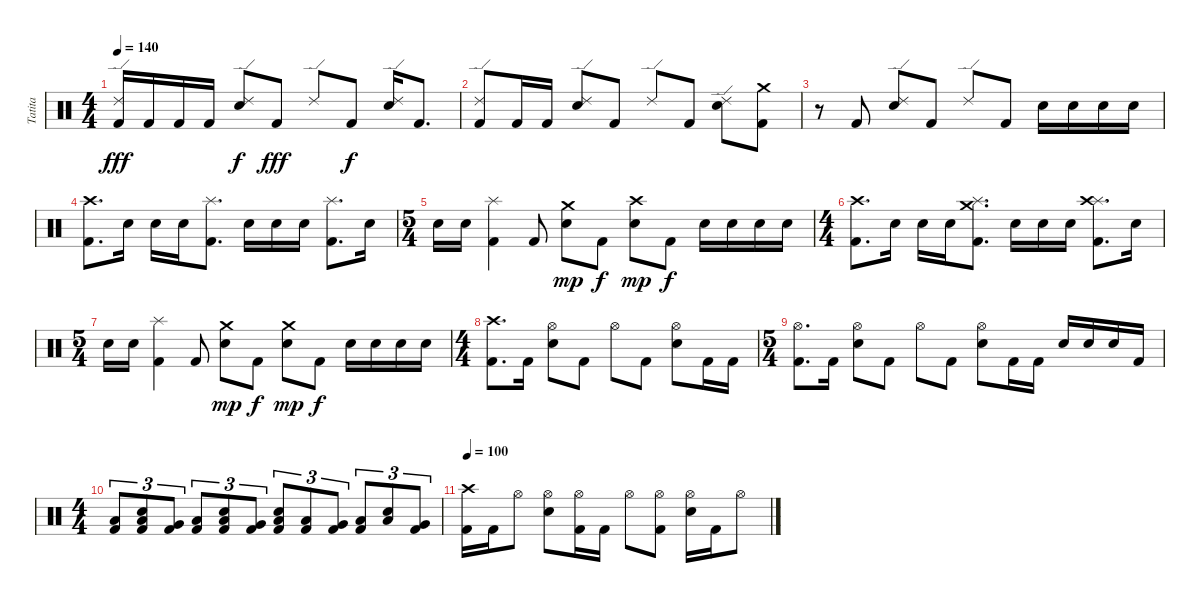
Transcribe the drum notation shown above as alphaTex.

\track ("Tatita" "Tatita") {instrument percussion}
\staff {score}
\articulation defaults
\ts (4 4)
\tempo 140
\clef neutral
\ks c
("Kick (hit) 2" "Ride (edge) 2").16{dy fff} "Kick (hit) 2".16 "Kick (hit) 2".16 "Kick (hit) 2".16 ("Electric Snare (hit)" "Ride (edge) 2").8{dy f} "Kick (hit) 2".8{dy fff} "Ride (edge) 2".8 "Kick (hit) 2".8{dy f} ("Electric Snare (hit)" "Ride (edge) 2").16 "Kick (hit) 2".8{d} |
("Kick (hit) 2" "Ride (edge) 2").8 "Kick (hit) 2".16 "Kick (hit) 2".16 ("Electric Snare (hit)" "Ride (edge) 2").8 "Kick (hit) 2".8 "Ride (edge) 2".8 "Kick (hit) 2".8 ("Electric Snare (hit)" "Ride (edge) 2").8 ("Kick (hit) 2" "Crash medium (hit)").8 |
r.8 "Kick (hit) 2".8 ("Electric Snare (hit)" "Ride (edge) 2").8 "Kick (hit) 2".8 "Ride (edge) 2".8 "Kick (hit) 2".8 "Electric Snare (hit)".16 "Electric Snare (hit)".16 "Electric Snare (hit)".16 "Electric Snare (hit)".16 |
("Kick (hit) 2" "Crash high (hit)").8{d} "Electric Snare (hit)".16 "Electric Snare (hit)".16 "Electric Snare (hit)".16 ("Kick (hit) 2" "Splash (hit)").8{d} "Electric Snare (hit)".16 "Electric Snare (hit)".16 "Electric Snare (hit)".16 ("Kick (hit) 2" "Splash (hit)").8{d} "Electric Snare (hit)".16 |
\ts (5 4)
"Electric Snare (hit)".16 "Electric Snare (hit)".16 ("Kick (hit) 2" "Splash (hit)").4 "Kick (hit) 2".8 ("Electric Snare (hit)" "Crash medium (hit)").8{dy mp} "Kick (hit) 2".8{dy f} ("Electric Snare (hit)" "Crash high (hit)").8{dy mp} "Kick (hit) 2".8{dy f} "Electric Snare (hit)".16 "Electric Snare (hit)".16 "Electric Snare (hit)".16 "Electric Snare (hit)".16 |
\ts (4 4)
("Kick (hit) 2" "Crash high (hit)").8{d} "Electric Snare (hit)".16 "Electric Snare (hit)".16 "Electric Snare (hit)".16 ("Kick (hit) 2" "Splash (hit)" "Crash medium (hit)").8{d} "Electric Snare (hit)".16 "Electric Snare (hit)".16 "Electric Snare (hit)".16 ("Kick (hit) 2" "Splash (hit)" "Crash high (hit)").8{d} "Electric Snare (hit)".16 |
\ts (5 4)
"Electric Snare (hit)".16 "Electric Snare (hit)".16 ("Kick (hit) 2" "Splash (hit)").4 "Kick (hit) 2".8 ("Electric Snare (hit)" "Crash medium (hit)").8{dy mp} "Kick (hit) 2".8{dy f} ("Electric Snare (hit)" "Crash medium (hit)").8{dy mp} "Kick (hit) 2".8{dy f} "Electric Snare (hit)".16 "Electric Snare (hit)".16 "Electric Snare (hit)".16 "Electric Snare (hit)".16 |
\ts (4 4)
("Kick (hit) 2" "Crash high (hit)").8{d} "Kick (hit) 2".16 ("Electric Snare (hit)" "Hi-Hat (open)").8 "Kick (hit) 2".8 "Hi-Hat (open)".8 "Kick (hit) 2".8 ("Electric Snare (hit)" "Hi-Hat (open)").8 "Kick (hit) 2".16 "Kick (hit) 2".16 |
\ts (5 4)
("Kick (hit) 2" "Hi-Hat (open)").8{d} "Kick (hit) 2".16 ("Electric Snare (hit)" "Hi-Hat (open)").8 "Kick (hit) 2".8 "Hi-Hat (open)".8 "Kick (hit) 2".8 ("Electric Snare (hit)" "Hi-Hat (open)").8 "Kick (hit) 2".16 "Kick (hit) 2".16 "Electric Snare (hit)".16 "Electric Snare (hit)".16 "Electric Snare (hit)".16 "Kick (hit) 2".16 |
\ts (4 4)
("Kick (hit) 2" "Low Tom (hit)").8{tu (3 2)} ("Kick (hit) 2" "Electric Snare (hit)" "Low Tom (hit)").8{tu (3 2)} ("Kick (hit) 2" "Very Low Tom (hit)").8{tu (3 2)} ("Kick (hit) 2" "Low Tom (hit)").8{tu (3 2)} ("Kick (hit) 2" "Electric Snare (hit)" "Low Tom (hit)").8{tu (3 2)} ("Kick (hit) 2" "Very Low Tom (hit)").8{tu (3 2)} ("Kick (hit) 2" "Electric Snare (hit)" "Low Tom (hit)").8{tu (3 2)} ("Kick (hit) 2" "Low Tom (hit)").8{tu (3 2)} ("Kick (hit) 2" "Very Low Tom (hit)").8{tu (3 2)} ("Kick (hit) 2" "Low Tom (hit)").8{tu (3 2)} ("Electric Snare (hit)" "Low Tom (hit)").8{tu (3 2)} ("Kick (hit) 2" "Very Low Tom (hit)").8{tu (3 2)} |
\tempo 100
("Kick (hit) 2" "Crash high (hit)").16 "Kick (hit) 2".16 "Hi-Hat (open)".8 ("Electric Snare (hit)" "Hi-Hat (open)").8 ("Kick (hit) 2" "Hi-Hat (open)").16 "Kick (hit) 2".16 "Hi-Hat (open)".8 ("Kick (hit) 2" "Hi-Hat (open)").8 ("Electric Snare (hit)" "Hi-Hat (open)").16 "Kick (hit) 2".16 "Hi-Hat (open)".8
